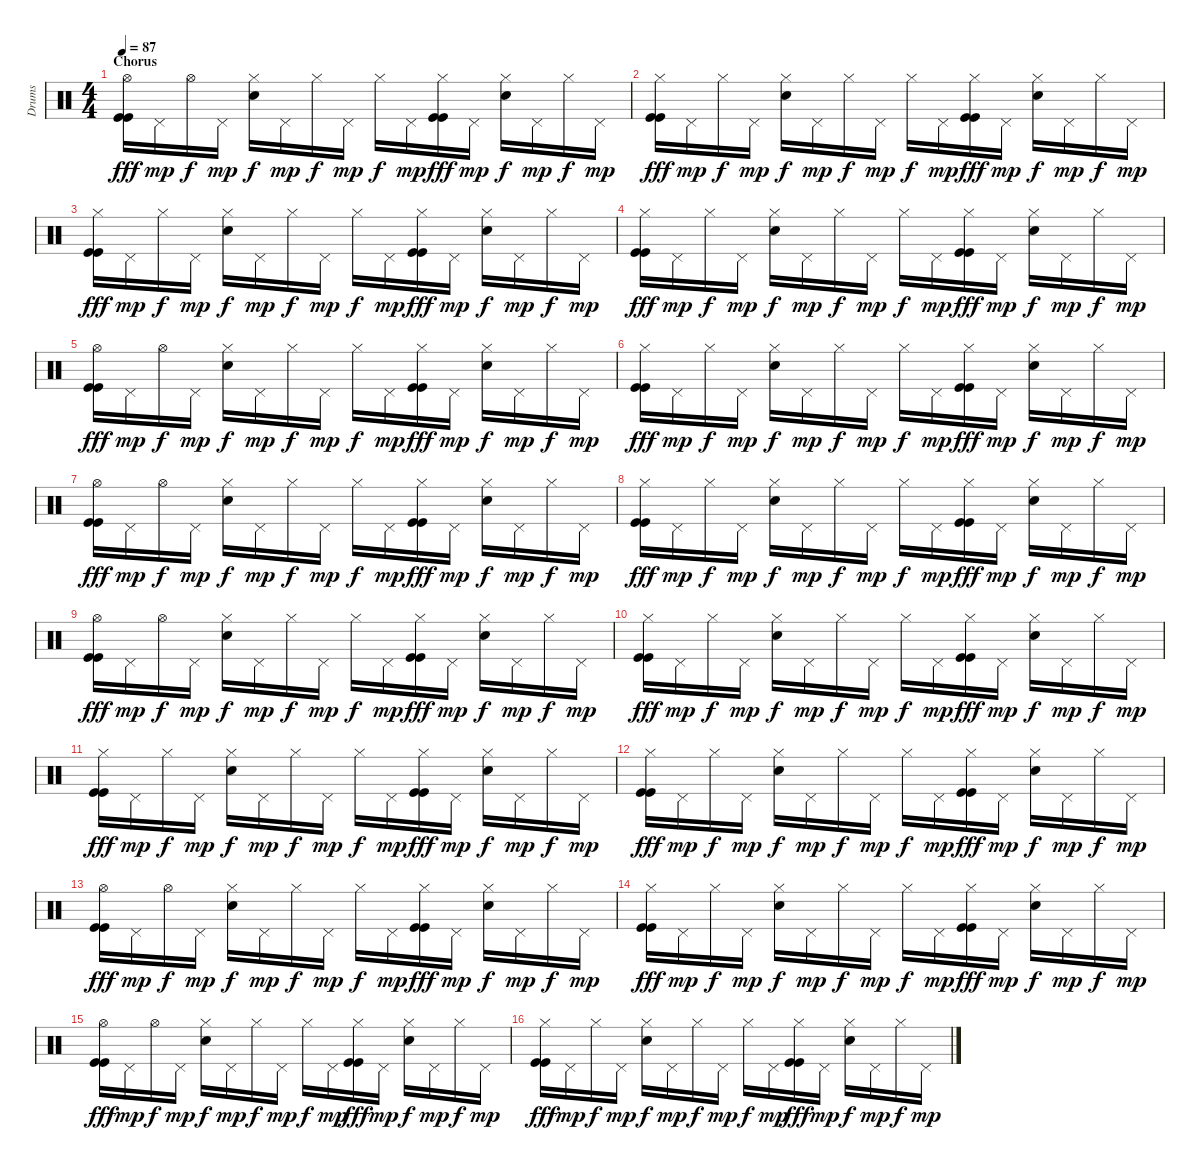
\track ("Drums" "Drums") {instrument percussion}
\staff {score}
\articulation defaults
\ts (4 4)
\section ("" "Chorus")
\tempo 87
\clef neutral
\ks c
("Hi-Hat (open)" "Kick (hit)" "Kick (hit)").16{dy fff} "Pedal Hi-Hat (hit)".16{dy mp} "Hi-Hat (open)".16{dy f} "Pedal Hi-Hat (hit)".16{dy mp} ("Hi-Hat (closed)" "Electric Snare (hit)").16{dy f} "Pedal Hi-Hat (hit)".16{dy mp} "Hi-Hat (closed)".16{dy f} "Pedal Hi-Hat (hit)".16{dy mp} "Hi-Hat (closed)".16{dy f} "Pedal Hi-Hat (hit)".16{dy mp} ("Hi-Hat (closed)" "Kick (hit)" "Kick (hit)").16{dy fff} "Pedal Hi-Hat (hit)".16{dy mp} ("Hi-Hat (closed)" "Electric Snare (hit)").16{dy f} "Pedal Hi-Hat (hit)".16{dy mp} "Hi-Hat (closed)".16{dy f} "Pedal Hi-Hat (hit)".16{dy mp} |
("Hi-Hat (closed)" "Kick (hit)" "Kick (hit)").16{dy fff} "Pedal Hi-Hat (hit)".16{dy mp} "Hi-Hat (closed)".16{dy f} "Pedal Hi-Hat (hit)".16{dy mp} ("Hi-Hat (closed)" "Electric Snare (hit)").16{dy f} "Pedal Hi-Hat (hit)".16{dy mp} "Hi-Hat (closed)".16{dy f} "Pedal Hi-Hat (hit)".16{dy mp} "Hi-Hat (closed)".16{dy f} "Pedal Hi-Hat (hit)".16{dy mp} ("Hi-Hat (closed)" "Kick (hit)" "Kick (hit)").16{dy fff} "Pedal Hi-Hat (hit)".16{dy mp} ("Hi-Hat (closed)" "Electric Snare (hit)").16{dy f} "Pedal Hi-Hat (hit)".16{dy mp} "Hi-Hat (closed)".16{dy f} "Pedal Hi-Hat (hit)".16{dy mp} |
("Hi-Hat (closed)" "Kick (hit)" "Kick (hit)").16{dy fff} "Pedal Hi-Hat (hit)".16{dy mp} "Hi-Hat (closed)".16{dy f} "Pedal Hi-Hat (hit)".16{dy mp} ("Hi-Hat (closed)" "Electric Snare (hit)").16{dy f} "Pedal Hi-Hat (hit)".16{dy mp} "Hi-Hat (closed)".16{dy f} "Pedal Hi-Hat (hit)".16{dy mp} "Hi-Hat (closed)".16{dy f} "Pedal Hi-Hat (hit)".16{dy mp} ("Hi-Hat (closed)" "Kick (hit)" "Kick (hit)").16{dy fff} "Pedal Hi-Hat (hit)".16{dy mp} ("Hi-Hat (closed)" "Electric Snare (hit)").16{dy f} "Pedal Hi-Hat (hit)".16{dy mp} "Hi-Hat (closed)".16{dy f} "Pedal Hi-Hat (hit)".16{dy mp} |
("Hi-Hat (closed)" "Kick (hit)" "Kick (hit)").16{dy fff} "Pedal Hi-Hat (hit)".16{dy mp} "Hi-Hat (closed)".16{dy f} "Pedal Hi-Hat (hit)".16{dy mp} ("Hi-Hat (closed)" "Electric Snare (hit)").16{dy f} "Pedal Hi-Hat (hit)".16{dy mp} "Hi-Hat (closed)".16{dy f} "Pedal Hi-Hat (hit)".16{dy mp} "Hi-Hat (closed)".16{dy f} "Pedal Hi-Hat (hit)".16{dy mp} ("Hi-Hat (closed)" "Kick (hit)" "Kick (hit)").16{dy fff} "Pedal Hi-Hat (hit)".16{dy mp} ("Hi-Hat (closed)" "Electric Snare (hit)").16{dy f} "Pedal Hi-Hat (hit)".16{dy mp} "Hi-Hat (closed)".16{dy f} "Pedal Hi-Hat (hit)".16{dy mp} |
("Hi-Hat (open)" "Kick (hit)" "Kick (hit)").16{dy fff} "Pedal Hi-Hat (hit)".16{dy mp} "Hi-Hat (open)".16{dy f} "Pedal Hi-Hat (hit)".16{dy mp} ("Hi-Hat (closed)" "Electric Snare (hit)").16{dy f} "Pedal Hi-Hat (hit)".16{dy mp} "Hi-Hat (closed)".16{dy f} "Pedal Hi-Hat (hit)".16{dy mp} "Hi-Hat (closed)".16{dy f} "Pedal Hi-Hat (hit)".16{dy mp} ("Hi-Hat (closed)" "Kick (hit)" "Kick (hit)").16{dy fff} "Pedal Hi-Hat (hit)".16{dy mp} ("Hi-Hat (closed)" "Electric Snare (hit)").16{dy f} "Pedal Hi-Hat (hit)".16{dy mp} "Hi-Hat (closed)".16{dy f} "Pedal Hi-Hat (hit)".16{dy mp} |
("Hi-Hat (closed)" "Kick (hit)" "Kick (hit)").16{dy fff} "Pedal Hi-Hat (hit)".16{dy mp} "Hi-Hat (closed)".16{dy f} "Pedal Hi-Hat (hit)".16{dy mp} ("Hi-Hat (closed)" "Electric Snare (hit)").16{dy f} "Pedal Hi-Hat (hit)".16{dy mp} "Hi-Hat (closed)".16{dy f} "Pedal Hi-Hat (hit)".16{dy mp} "Hi-Hat (closed)".16{dy f} "Pedal Hi-Hat (hit)".16{dy mp} ("Hi-Hat (closed)" "Kick (hit)" "Kick (hit)").16{dy fff} "Pedal Hi-Hat (hit)".16{dy mp} ("Hi-Hat (closed)" "Electric Snare (hit)").16{dy f} "Pedal Hi-Hat (hit)".16{dy mp} "Hi-Hat (closed)".16{dy f} "Pedal Hi-Hat (hit)".16{dy mp} |
("Hi-Hat (open)" "Kick (hit)" "Kick (hit)").16{dy fff} "Pedal Hi-Hat (hit)".16{dy mp} "Hi-Hat (open)".16{dy f} "Pedal Hi-Hat (hit)".16{dy mp} ("Hi-Hat (closed)" "Electric Snare (hit)").16{dy f} "Pedal Hi-Hat (hit)".16{dy mp} "Hi-Hat (closed)".16{dy f} "Pedal Hi-Hat (hit)".16{dy mp} "Hi-Hat (closed)".16{dy f} "Pedal Hi-Hat (hit)".16{dy mp} ("Hi-Hat (closed)" "Kick (hit)" "Kick (hit)").16{dy fff} "Pedal Hi-Hat (hit)".16{dy mp} ("Hi-Hat (closed)" "Electric Snare (hit)").16{dy f} "Pedal Hi-Hat (hit)".16{dy mp} "Hi-Hat (closed)".16{dy f} "Pedal Hi-Hat (hit)".16{dy mp} |
("Hi-Hat (closed)" "Kick (hit)" "Kick (hit)").16{dy fff} "Pedal Hi-Hat (hit)".16{dy mp} "Hi-Hat (closed)".16{dy f} "Pedal Hi-Hat (hit)".16{dy mp} ("Hi-Hat (closed)" "Electric Snare (hit)").16{dy f} "Pedal Hi-Hat (hit)".16{dy mp} "Hi-Hat (closed)".16{dy f} "Pedal Hi-Hat (hit)".16{dy mp} "Hi-Hat (closed)".16{dy f} "Pedal Hi-Hat (hit)".16{dy mp} ("Hi-Hat (closed)" "Kick (hit)" "Kick (hit)").16{dy fff} "Pedal Hi-Hat (hit)".16{dy mp} ("Hi-Hat (closed)" "Electric Snare (hit)").16{dy f} "Pedal Hi-Hat (hit)".16{dy mp} "Hi-Hat (closed)".16{dy f} "Pedal Hi-Hat (hit)".16{dy mp} |
("Hi-Hat (open)" "Kick (hit)" "Kick (hit)").16{dy fff} "Pedal Hi-Hat (hit)".16{dy mp} "Hi-Hat (open)".16{dy f} "Pedal Hi-Hat (hit)".16{dy mp} ("Hi-Hat (closed)" "Electric Snare (hit)").16{dy f} "Pedal Hi-Hat (hit)".16{dy mp} "Hi-Hat (closed)".16{dy f} "Pedal Hi-Hat (hit)".16{dy mp} "Hi-Hat (closed)".16{dy f} "Pedal Hi-Hat (hit)".16{dy mp} ("Hi-Hat (closed)" "Kick (hit)" "Kick (hit)").16{dy fff} "Pedal Hi-Hat (hit)".16{dy mp} ("Hi-Hat (closed)" "Electric Snare (hit)").16{dy f} "Pedal Hi-Hat (hit)".16{dy mp} "Hi-Hat (closed)".16{dy f} "Pedal Hi-Hat (hit)".16{dy mp} |
("Hi-Hat (closed)" "Kick (hit)" "Kick (hit)").16{dy fff} "Pedal Hi-Hat (hit)".16{dy mp} "Hi-Hat (closed)".16{dy f} "Pedal Hi-Hat (hit)".16{dy mp} ("Hi-Hat (closed)" "Electric Snare (hit)").16{dy f} "Pedal Hi-Hat (hit)".16{dy mp} "Hi-Hat (closed)".16{dy f} "Pedal Hi-Hat (hit)".16{dy mp} "Hi-Hat (closed)".16{dy f} "Pedal Hi-Hat (hit)".16{dy mp} ("Hi-Hat (closed)" "Kick (hit)" "Kick (hit)").16{dy fff} "Pedal Hi-Hat (hit)".16{dy mp} ("Hi-Hat (closed)" "Electric Snare (hit)").16{dy f} "Pedal Hi-Hat (hit)".16{dy mp} "Hi-Hat (closed)".16{dy f} "Pedal Hi-Hat (hit)".16{dy mp} |
("Hi-Hat (closed)" "Kick (hit)" "Kick (hit)").16{dy fff} "Pedal Hi-Hat (hit)".16{dy mp} "Hi-Hat (closed)".16{dy f} "Pedal Hi-Hat (hit)".16{dy mp} ("Hi-Hat (closed)" "Electric Snare (hit)").16{dy f} "Pedal Hi-Hat (hit)".16{dy mp} "Hi-Hat (closed)".16{dy f} "Pedal Hi-Hat (hit)".16{dy mp} "Hi-Hat (closed)".16{dy f} "Pedal Hi-Hat (hit)".16{dy mp} ("Hi-Hat (closed)" "Kick (hit)" "Kick (hit)").16{dy fff} "Pedal Hi-Hat (hit)".16{dy mp} ("Hi-Hat (closed)" "Electric Snare (hit)").16{dy f} "Pedal Hi-Hat (hit)".16{dy mp} "Hi-Hat (closed)".16{dy f} "Pedal Hi-Hat (hit)".16{dy mp} |
("Hi-Hat (closed)" "Kick (hit)" "Kick (hit)").16{dy fff} "Pedal Hi-Hat (hit)".16{dy mp} "Hi-Hat (closed)".16{dy f} "Pedal Hi-Hat (hit)".16{dy mp} ("Hi-Hat (closed)" "Electric Snare (hit)").16{dy f} "Pedal Hi-Hat (hit)".16{dy mp} "Hi-Hat (closed)".16{dy f} "Pedal Hi-Hat (hit)".16{dy mp} "Hi-Hat (closed)".16{dy f} "Pedal Hi-Hat (hit)".16{dy mp} ("Hi-Hat (closed)" "Kick (hit)" "Kick (hit)").16{dy fff} "Pedal Hi-Hat (hit)".16{dy mp} ("Hi-Hat (closed)" "Electric Snare (hit)").16{dy f} "Pedal Hi-Hat (hit)".16{dy mp} "Hi-Hat (closed)".16{dy f} "Pedal Hi-Hat (hit)".16{dy mp} |
("Hi-Hat (open)" "Kick (hit)" "Kick (hit)").16{dy fff} "Pedal Hi-Hat (hit)".16{dy mp} "Hi-Hat (open)".16{dy f} "Pedal Hi-Hat (hit)".16{dy mp} ("Hi-Hat (closed)" "Electric Snare (hit)").16{dy f} "Pedal Hi-Hat (hit)".16{dy mp} "Hi-Hat (closed)".16{dy f} "Pedal Hi-Hat (hit)".16{dy mp} "Hi-Hat (closed)".16{dy f} "Pedal Hi-Hat (hit)".16{dy mp} ("Hi-Hat (closed)" "Kick (hit)" "Kick (hit)").16{dy fff} "Pedal Hi-Hat (hit)".16{dy mp} ("Hi-Hat (closed)" "Electric Snare (hit)").16{dy f} "Pedal Hi-Hat (hit)".16{dy mp} "Hi-Hat (closed)".16{dy f} "Pedal Hi-Hat (hit)".16{dy mp} |
("Hi-Hat (closed)" "Kick (hit)" "Kick (hit)").16{dy fff} "Pedal Hi-Hat (hit)".16{dy mp} "Hi-Hat (closed)".16{dy f} "Pedal Hi-Hat (hit)".16{dy mp} ("Hi-Hat (closed)" "Electric Snare (hit)").16{dy f} "Pedal Hi-Hat (hit)".16{dy mp} "Hi-Hat (closed)".16{dy f} "Pedal Hi-Hat (hit)".16{dy mp} "Hi-Hat (closed)".16{dy f} "Pedal Hi-Hat (hit)".16{dy mp} ("Hi-Hat (closed)" "Kick (hit)" "Kick (hit)").16{dy fff} "Pedal Hi-Hat (hit)".16{dy mp} ("Hi-Hat (closed)" "Electric Snare (hit)").16{dy f} "Pedal Hi-Hat (hit)".16{dy mp} "Hi-Hat (closed)".16{dy f} "Pedal Hi-Hat (hit)".16{dy mp} |
("Hi-Hat (open)" "Kick (hit)" "Kick (hit)").16{dy fff} "Pedal Hi-Hat (hit)".16{dy mp} "Hi-Hat (open)".16{dy f} "Pedal Hi-Hat (hit)".16{dy mp} ("Hi-Hat (closed)" "Electric Snare (hit)").16{dy f} "Pedal Hi-Hat (hit)".16{dy mp} "Hi-Hat (closed)".16{dy f} "Pedal Hi-Hat (hit)".16{dy mp} "Hi-Hat (closed)".16{dy f} "Pedal Hi-Hat (hit)".16{dy mp} ("Hi-Hat (closed)" "Kick (hit)" "Kick (hit)").16{dy fff} "Pedal Hi-Hat (hit)".16{dy mp} ("Hi-Hat (closed)" "Electric Snare (hit)").16{dy f} "Pedal Hi-Hat (hit)".16{dy mp} "Hi-Hat (closed)".16{dy f} "Pedal Hi-Hat (hit)".16{dy mp} |
("Hi-Hat (closed)" "Kick (hit)" "Kick (hit)").16{dy fff} "Pedal Hi-Hat (hit)".16{dy mp} "Hi-Hat (closed)".16{dy f} "Pedal Hi-Hat (hit)".16{dy mp} ("Hi-Hat (closed)" "Electric Snare (hit)").16{dy f} "Pedal Hi-Hat (hit)".16{dy mp} "Hi-Hat (closed)".16{dy f} "Pedal Hi-Hat (hit)".16{dy mp} "Hi-Hat (closed)".16{dy f} "Pedal Hi-Hat (hit)".16{dy mp} ("Hi-Hat (closed)" "Kick (hit)" "Kick (hit)").16{dy fff} "Pedal Hi-Hat (hit)".16{dy mp} ("Hi-Hat (closed)" "Electric Snare (hit)").16{dy f} "Pedal Hi-Hat (hit)".16{dy mp} "Hi-Hat (closed)".16{dy f} "Pedal Hi-Hat (hit)".16{dy mp}
